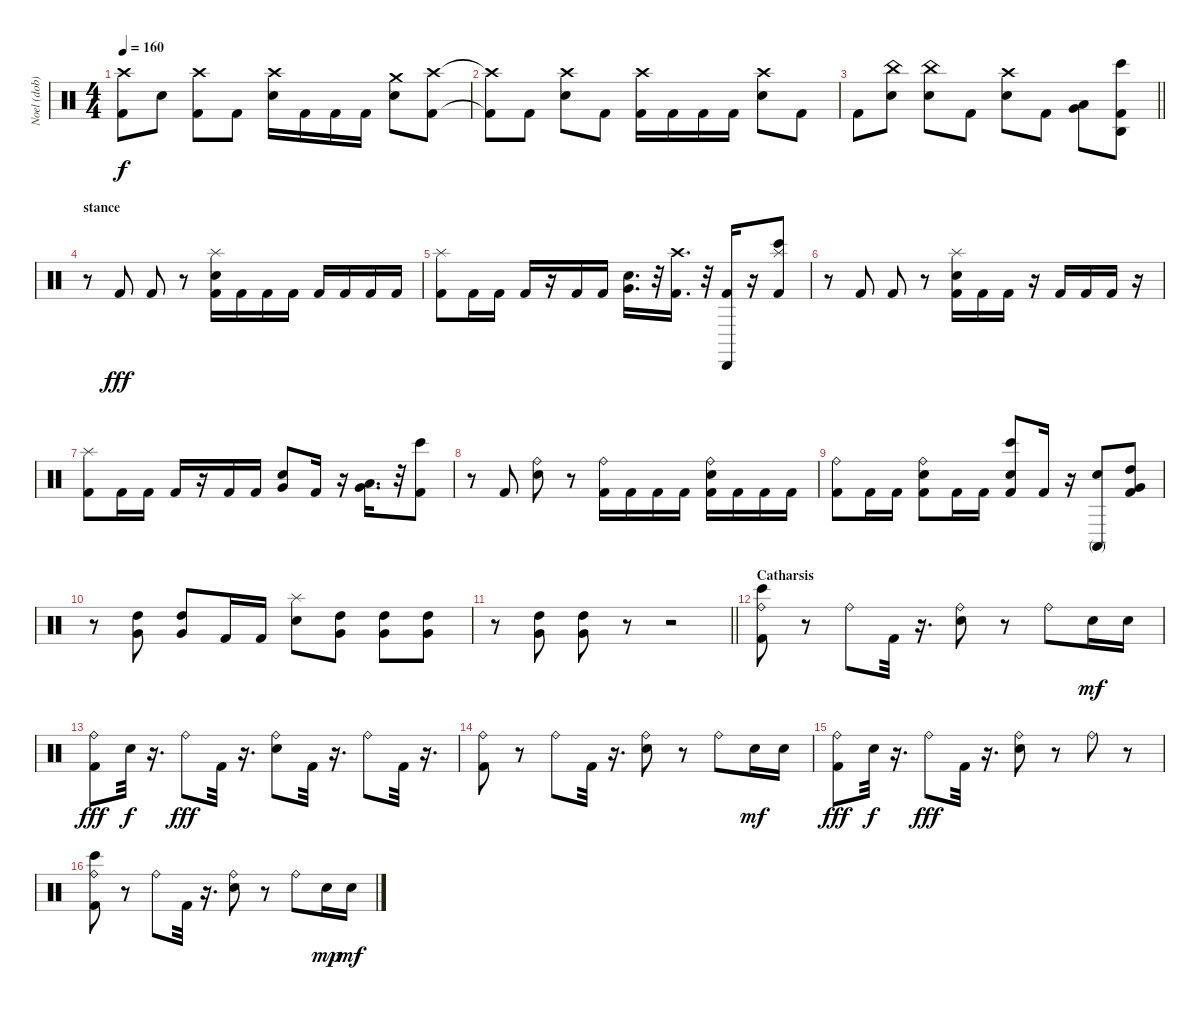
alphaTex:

\track ("Noel (dob)" "Noel (dob)") {instrument percussion}
\staff {score}
\articulation defaults
\ts (4 4)
\tempo 160
\clef neutral
\ks c
("Crash high (hit)" "Kick (hit) 2").8{dy f} "Electric Snare (hit)".8 ("Crash high (hit)" "Kick (hit) 2").8 "Kick (hit) 2".8 ("Crash high (hit)" "Electric Snare (hit)").16 "Kick (hit) 2".16 "Kick (hit) 2".16 "Kick (hit) 2".16 ("Crash medium (hit)" "Electric Snare (hit)").8 ("Crash high (hit)" "Kick (hit) 2").8 |
("Crash high (hit)"{t} "Kick (hit) 2"{t}).8 "Kick (hit) 2".8 ("Crash high (hit)" "Electric Snare (hit)").8 "Kick (hit) 2".8 ("Crash high (hit)" "Kick (hit) 2").16 "Kick (hit) 2".16 "Kick (hit) 2".16 "Kick (hit) 2".16 ("Crash high (hit)" "Electric Snare (hit)").8 "Kick (hit) 2".8 |
\barLineRight lightlight "Kick (hit) 2".8
("Electric Snare (hit)" "China (hit)").8 ("Electric Snare (hit)" "China (hit)").8 "Kick (hit) 2".8 ("Crash high (hit)" "Electric Snare (hit)").8 "Kick (hit) 2".8 ("Low Tom (hit)" "Very Low Tom (hit)").8 ("Agogo high (hit)" "Bongo High (hit)" "Kick (hit) 2").8 |
\section ("" "stance")
r.8 "Kick (hit) 2".8{dy fff} "Kick (hit) 2".8 r.8 ("Kick (hit) 2" "Snare (hit) 2" "Splash (hit)").16 "Kick (hit) 2".16 "Kick (hit) 2".16 "Kick (hit) 2".16 "Kick (hit) 2".16 "Kick (hit) 2".16 "Kick (hit) 2".16 "Kick (hit) 2".16 |
("Kick (hit) 2" "Splash (hit)").8 "Kick (hit) 2".16 "Kick (hit) 2".16 "Kick (hit) 2".16 r.16 "Kick (hit) 2".16 "Kick (hit) 2".16 ("Snare (hit) 2" "Very Low Tom (hit)").16{d} r.32 ("Kick (hit) 2" "Crash high (hit)").16{d} r.32 ("Kick (hit) 2" "Cabasa (hit)").16 r.16 ("Splash (hit)" "Bongo High (hit)" "Kick (hit) 2").8 |
r.8 "Kick (hit) 2".8 "Kick (hit) 2".8 r.8 ("Kick (hit) 2" "Snare (hit) 2" "Splash (hit)").16 "Kick (hit) 2".16 "Kick (hit) 2".16 r.16 "Kick (hit) 2".16 "Kick (hit) 2".16 "Kick (hit) 2".16 r.16 |
("Splash (hit)" "Kick (hit) 2").8 "Kick (hit) 2".16 "Kick (hit) 2".16 "Kick (hit) 2".16 r.16 "Kick (hit) 2".16 "Kick (hit) 2".16 ("Snare (hit) 2" "Very Low Tom (hit)").8 "Kick (hit) 2".16 r.16 ("Very Low Tom (hit)" "Low Tom (hit)").16{d} r.32 ("Kick (hit) 2" "Bongo High (hit)").8 |
r.8 "Kick (hit) 2".8 ("Ride (bell)" "Snare (hit) 2").8 r.8 ("Kick (hit) 2" "Ride (bell)").16 "Kick (hit) 2".16 "Kick (hit) 2".16 "Kick (hit) 2".16 ("Ride (bell)" "Kick (hit) 2" "Snare (hit) 2").16 "Kick (hit) 2".16 "Kick (hit) 2".16 "Kick (hit) 2".16 |
("Kick (hit) 2" "Ride (bell)").8 "Kick (hit) 2".16 "Kick (hit) 2".16 ("Kick (hit) 2" "Snare (hit) 2" "Ride (bell)").8 "Kick (hit) 2".16 "Kick (hit) 2".16 ("Bongo High (hit)" "Kick (hit) 2" "Snare (hit) 2").8 "Kick (hit) 2".16 r.16 ("Conga high (mute)" "Snare (hit) 2").8 ("Kick (hit) 2" "High Tom (hit)" "Very Low Tom (hit)").8 |
r.8 ("High Tom (hit)" "Very Low Tom (hit)").8 ("High Tom (hit)" "Very Low Tom (hit)").8 "Kick (hit) 2".16 "Kick (hit) 2".16 ("Snare (hit) 2" "Splash (hit)").8 ("High Tom (hit)" "Very Low Tom (hit)").8 ("High Tom (hit)" "Very Low Tom (hit)").8 ("High Tom (hit)" "Very Low Tom (hit)").8 |
\barLineRight lightlight
r.8 ("High Tom (hit)" "Very Low Tom (hit)").8 ("High Tom (hit)" "Very Low Tom (hit)").8 r.8 r.2 |
\section ("" "Catharsis")
("Kick (hit) 2" "Bongo High (hit)" "Ride (bell)").8 r.8 "Ride (bell)".8 "Kick (hit) 2".32 r.16{d} ("Snare (hit) 2" "Ride (bell)").8 r.8 "Ride (bell)".8 "Snare (hit) 2".16{dy mf} "Snare (hit) 2".16 |
("Kick (hit) 2" "Ride (bell)").8{dy fff} "Snare (hit) 2".32{dy f} r.16{d} "Ride (bell)".8{dy fff} "Kick (hit) 2".32 r.16{d} ("Snare (hit) 2" "Ride (bell)").8 "Kick (hit) 2".32 r.16{d} "Ride (bell)".8 "Kick (hit) 2".32 r.16{d} |
("Ride (bell)" "Kick (hit) 2").8 r.8 "Ride (bell)".8 "Kick (hit) 2".32 r.16{d} ("Ride (bell)" "Snare (hit) 2").8 r.8 "Ride (bell)".8 "Snare (hit) 2".16{dy mf} "Snare (hit) 2".16 |
("Ride (bell)" "Kick (hit) 2").8{dy fff} "Snare (hit) 2".32{dy f} r.16{d} "Ride (bell)".8{dy fff} "Kick (hit) 2".32 r.16{d} ("Snare (hit) 2" "Ride (bell)").8 r.8 "Ride (bell)".8 r.8 |
("Bongo High (hit)" "Kick (hit) 2" "Ride (bell)").8 r.8 "Ride (bell)".8 "Kick (hit) 2".32 r.16{d} ("Ride (bell)" "Snare (hit) 2").8 r.8 "Ride (bell)".8 "Snare (hit) 2".16{dy mp} "Snare (hit) 2".16{dy mf}
